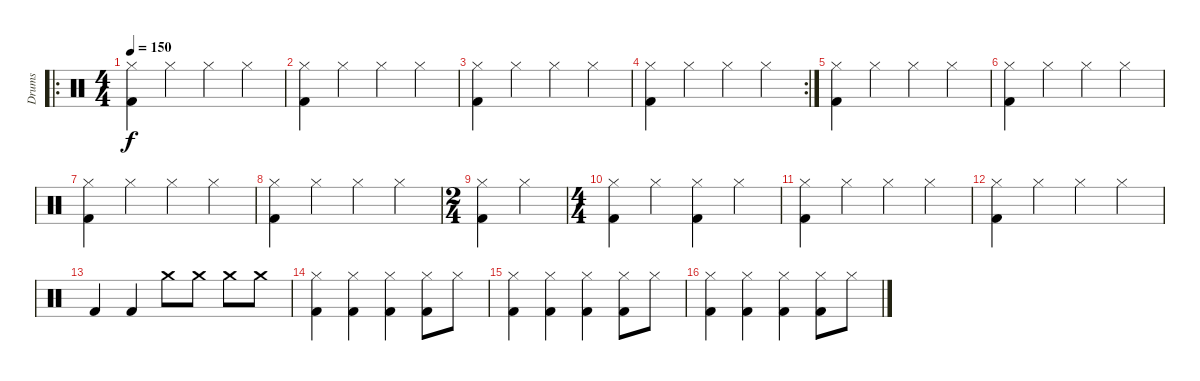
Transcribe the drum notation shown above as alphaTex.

\track ("Drums" "Drums") {instrument percussion}
\staff {score}
\articulation defaults
\ro
\ts (4 4)
\tempo 150
\clef neutral
\ks c
("Hi-Hat (closed)" "Kick (hit) 2").4{dy f} "Hi-Hat (closed)".4 "Hi-Hat (closed)".4 "Hi-Hat (closed)".4 |
("Hi-Hat (closed)" "Kick (hit) 2").4 "Hi-Hat (closed)".4 "Hi-Hat (closed)".4 "Hi-Hat (closed)".4 |
("Hi-Hat (closed)" "Kick (hit) 2").4 "Hi-Hat (closed)".4 "Hi-Hat (closed)".4 "Hi-Hat (closed)".4 |
\rc 2
("Hi-Hat (closed)" "Kick (hit) 2").4 "Hi-Hat (closed)".4 "Hi-Hat (closed)".4 "Hi-Hat (closed)".4 |
("Hi-Hat (closed)" "Kick (hit) 2").4 "Hi-Hat (closed)".4 "Hi-Hat (closed)".4 "Hi-Hat (closed)".4 |
("Hi-Hat (closed)" "Kick (hit) 2").4 "Hi-Hat (closed)".4 "Hi-Hat (closed)".4 "Hi-Hat (closed)".4 |
("Hi-Hat (closed)" "Kick (hit) 2").4 "Hi-Hat (closed)".4 "Hi-Hat (closed)".4 "Hi-Hat (closed)".4 |
("Hi-Hat (closed)" "Kick (hit) 2").4 "Hi-Hat (closed)".4 "Hi-Hat (closed)".4 "Hi-Hat (closed)".4 |
\ts (2 4)
("Hi-Hat (closed)" "Kick (hit) 2").4 "Hi-Hat (closed)".4 |
\ts (4 4)
("Hi-Hat (closed)" "Kick (hit) 2").4 "Hi-Hat (closed)".4 ("Hi-Hat (closed)" "Kick (hit) 2").4 "Hi-Hat (closed)".4 |
("Hi-Hat (closed)" "Kick (hit) 2").4 "Hi-Hat (closed)".4 "Hi-Hat (closed)".4 "Hi-Hat (closed)".4 |
("Hi-Hat (closed)" "Kick (hit) 2").4 "Hi-Hat (closed)".4 "Hi-Hat (closed)".4 "Hi-Hat (closed)".4 |
"Kick (hit) 2".4 "Kick (hit) 2".4 "Crash medium (hit)".8 "Crash medium (hit)".8 "Crash medium (hit)".8 "Crash medium (hit)".8 |
("Hi-Hat (closed)" "Kick (hit) 2").4 ("Hi-Hat (closed)" "Kick (hit) 2").4 ("Hi-Hat (closed)" "Kick (hit) 2").4 ("Hi-Hat (closed)" "Kick (hit) 2").8 "Hi-Hat (closed)".8 |
("Hi-Hat (closed)" "Kick (hit) 2").4 ("Hi-Hat (closed)" "Kick (hit) 2").4 ("Hi-Hat (closed)" "Kick (hit) 2").4 ("Hi-Hat (closed)" "Kick (hit) 2").8 "Hi-Hat (closed)".8 |
("Hi-Hat (closed)" "Kick (hit) 2").4 ("Hi-Hat (closed)" "Kick (hit) 2").4 ("Hi-Hat (closed)" "Kick (hit) 2").4 ("Hi-Hat (closed)" "Kick (hit) 2").8 "Hi-Hat (closed)".8
